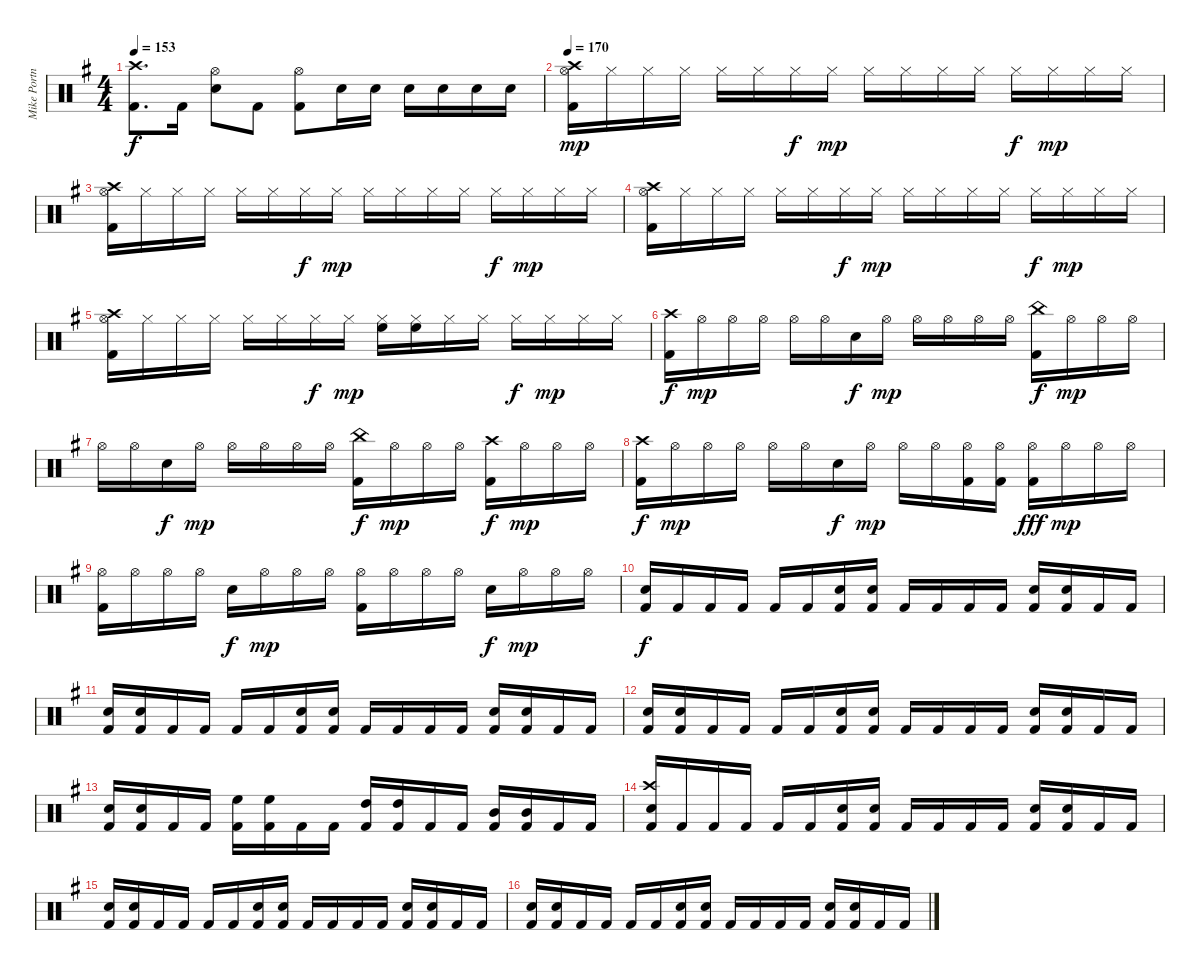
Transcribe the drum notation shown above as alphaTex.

\track ("Mike Portnoy - Drums" "Mike Portn") {instrument percussion}
\staff {score}
\articulation defaults
\ts (4 4)
\tempo 153
\clef neutral
\ks g
("Kick (hit) 2" "Crash high (hit)").8{d dy f} "Kick (hit) 2".16 ("Electric Snare (hit)" "Hi-Hat (open)").8 "Kick (hit) 2".8 ("Kick (hit) 2" "Hi-Hat (open)").8 "Electric Snare (hit)".16 "Electric Snare (hit)".16 "Electric Snare (hit)".16 "Electric Snare (hit)".16 "Electric Snare (hit)".16 "Electric Snare (hit)".16 |
\tempo 170
("Crash high (hit)" "Kick (hit) 2" "Hi-Hat (open)").16{dy mp} "Hi-Hat (closed)".16 "Hi-Hat (closed)".16 "Hi-Hat (closed)".16 "Hi-Hat (closed)".16 "Hi-Hat (closed)".16 "Hi-Hat (closed)".16{dy f} "Hi-Hat (closed)".16{dy mp} "Hi-Hat (closed)".16 "Hi-Hat (closed)".16 "Hi-Hat (closed)".16 "Hi-Hat (closed)".16 "Hi-Hat (closed)".16{dy f} "Hi-Hat (closed)".16{dy mp} "Hi-Hat (closed)".16 "Hi-Hat (closed)".16 |
("Crash high (hit)" "Kick (hit) 2" "Hi-Hat (open)").16 "Hi-Hat (closed)".16 "Hi-Hat (closed)".16 "Hi-Hat (closed)".16 "Hi-Hat (closed)".16 "Hi-Hat (closed)".16 "Hi-Hat (closed)".16{dy f} "Hi-Hat (closed)".16{dy mp} "Hi-Hat (closed)".16 "Hi-Hat (closed)".16 "Hi-Hat (closed)".16 "Hi-Hat (closed)".16 "Hi-Hat (closed)".16{dy f} "Hi-Hat (closed)".16{dy mp} "Hi-Hat (closed)".16 "Hi-Hat (closed)".16 |
("Crash high (hit)" "Kick (hit) 2" "Hi-Hat (open)").16 "Hi-Hat (closed)".16 "Hi-Hat (closed)".16 "Hi-Hat (closed)".16 "Hi-Hat (closed)".16 "Hi-Hat (closed)".16 "Hi-Hat (closed)".16{dy f} "Hi-Hat (closed)".16{dy mp} "Hi-Hat (closed)".16 "Hi-Hat (closed)".16 "Hi-Hat (closed)".16 "Hi-Hat (closed)".16 "Hi-Hat (closed)".16{dy f} "Hi-Hat (closed)".16{dy mp} "Hi-Hat (closed)".16 "Hi-Hat (closed)".16 |
("Crash high (hit)" "Kick (hit) 2" "Hi-Hat (open)").16 "Hi-Hat (closed)".16 "Hi-Hat (closed)".16 "Hi-Hat (closed)".16 "Hi-Hat (closed)".16 "Hi-Hat (closed)".16 "Hi-Hat (closed)".16{dy f} "Hi-Hat (closed)".16{dy mp} ("Hi-Hat (closed)" "High Floor Tom (hit)").16 ("Hi-Hat (closed)" "High Floor Tom (hit)").16 "Hi-Hat (closed)".16 "Hi-Hat (closed)".16 "Hi-Hat (closed)".16{dy f} "Hi-Hat (closed)".16{dy mp} "Hi-Hat (closed)".16 "Hi-Hat (closed)".16 |
("Crash high (hit)" "Kick (hit) 2").16{dy f} "Hi-Hat (open)".16{dy mp} "Hi-Hat (open)".16 "Hi-Hat (open)".16 "Hi-Hat (open)".16 "Hi-Hat (open)".16 "Electric Snare (hit)".16{dy f} "Hi-Hat (open)".16{dy mp} "Hi-Hat (open)".16 "Hi-Hat (open)".16 "Hi-Hat (open)".16 "Hi-Hat (open)".16 ("China (hit)" "Kick (hit) 2").16{dy f} "Hi-Hat (open)".16{dy mp} "Hi-Hat (open)".16 "Hi-Hat (open)".16 |
"Hi-Hat (open)".16 "Hi-Hat (open)".16 "Electric Snare (hit)".16{dy f} "Hi-Hat (open)".16{dy mp} "Hi-Hat (open)".16 "Hi-Hat (open)".16 "Hi-Hat (open)".16 "Hi-Hat (open)".16 ("China (hit)" "Kick (hit) 2").16{dy f} "Hi-Hat (open)".16{dy mp} "Hi-Hat (open)".16 "Hi-Hat (open)".16 ("Crash high (hit)" "Kick (hit) 2").16{dy f} "Hi-Hat (open)".16{dy mp} "Hi-Hat (open)".16 "Hi-Hat (open)".16 |
("Kick (hit) 2" "Crash high (hit)").16{dy f} "Hi-Hat (open)".16{dy mp} "Hi-Hat (open)".16 "Hi-Hat (open)".16 "Hi-Hat (open)".16 "Hi-Hat (open)".16 "Electric Snare (hit)".16{dy f} "Hi-Hat (open)".16{dy mp} "Hi-Hat (open)".16 "Hi-Hat (open)".16 ("Kick (hit) 2" "Hi-Hat (open)").16 ("Kick (hit) 2" "Hi-Hat (open)").16 ("Hi-Hat (open)" "Kick (hit) 2").16{dy fff} "Hi-Hat (open)".16{dy mp} "Hi-Hat (open)".16 "Hi-Hat (open)".16 |
("Kick (hit) 2" "Hi-Hat (open)").16 "Hi-Hat (open)".16 "Hi-Hat (open)".16 "Hi-Hat (open)".16 "Electric Snare (hit)".16{dy f} "Hi-Hat (open)".16{dy mp} "Hi-Hat (open)".16 "Hi-Hat (open)".16 ("Kick (hit) 2" "Hi-Hat (open)").16 "Hi-Hat (open)".16 "Hi-Hat (open)".16 "Hi-Hat (open)".16 "Electric Snare (hit)".16{dy f} "Hi-Hat (open)".16{dy mp} "Hi-Hat (open)".16 "Hi-Hat (open)".16 |
("Electric Snare (hit)" "Kick (hit) 2").16{dy f} "Kick (hit) 2".16 "Kick (hit) 2".16 "Kick (hit) 2".16 "Kick (hit) 2".16 "Kick (hit) 2".16 ("Kick (hit) 2" "Electric Snare (hit)").16 ("Kick (hit) 2" "Electric Snare (hit)").16 "Kick (hit) 2".16 "Kick (hit) 2".16 "Kick (hit) 2".16 "Kick (hit) 2".16 ("Kick (hit) 2" "Electric Snare (hit)").16 ("Kick (hit) 2" "Electric Snare (hit)").16 "Kick (hit) 2".16 "Kick (hit) 2".16 |
("Kick (hit) 2" "Electric Snare (hit)").16 ("Kick (hit) 2" "Electric Snare (hit)").16 "Kick (hit) 2".16 "Kick (hit) 2".16 "Kick (hit) 2".16 "Kick (hit) 2".16 ("Kick (hit) 2" "Electric Snare (hit)").16 ("Kick (hit) 2" "Electric Snare (hit)").16 "Kick (hit) 2".16 "Kick (hit) 2".16 "Kick (hit) 2".16 "Kick (hit) 2".16 ("Kick (hit) 2" "Electric Snare (hit)").16 ("Kick (hit) 2" "Electric Snare (hit)").16 "Kick (hit) 2".16 "Kick (hit) 2".16 |
("Kick (hit) 2" "Electric Snare (hit)").16 ("Kick (hit) 2" "Electric Snare (hit)").16 "Kick (hit) 2".16 "Kick (hit) 2".16 "Kick (hit) 2".16 "Kick (hit) 2".16 ("Kick (hit) 2" "Electric Snare (hit)").16 ("Kick (hit) 2" "Electric Snare (hit)").16 "Kick (hit) 2".16 "Kick (hit) 2".16 "Kick (hit) 2".16 "Kick (hit) 2".16 ("Kick (hit) 2" "Electric Snare (hit)").16 ("Kick (hit) 2" "Electric Snare (hit)").16 "Kick (hit) 2".16 "Kick (hit) 2".16 |
("Kick (hit) 2" "Electric Snare (hit)").16 ("Kick (hit) 2" "Electric Snare (hit)").16 "Kick (hit) 2".16 "Kick (hit) 2".16 ("Kick (hit) 2" "High Floor Tom (hit)").16 ("Kick (hit) 2" "High Floor Tom (hit)").16 "Kick (hit) 2".16 "Kick (hit) 2".16 ("Kick (hit) 2" "High Tom (hit)").16 ("Kick (hit) 2" "High Tom (hit)").16 "Kick (hit) 2".16 "Kick (hit) 2".16 ("Kick (hit) 2" "Mid Tom (hit)").16 ("Kick (hit) 2" "Mid Tom (hit)").16 "Kick (hit) 2".16 "Kick (hit) 2".16 |
("Kick (hit) 2" "Crash high (hit)" "Electric Snare (hit)").16 "Kick (hit) 2".16 "Kick (hit) 2".16 "Kick (hit) 2".16 "Kick (hit) 2".16 "Kick (hit) 2".16 ("Kick (hit) 2" "Electric Snare (hit)").16 ("Kick (hit) 2" "Electric Snare (hit)").16 "Kick (hit) 2".16 "Kick (hit) 2".16 "Kick (hit) 2".16 "Kick (hit) 2".16 ("Kick (hit) 2" "Electric Snare (hit)").16 ("Kick (hit) 2" "Electric Snare (hit)").16 "Kick (hit) 2".16 "Kick (hit) 2".16 |
("Kick (hit) 2" "Electric Snare (hit)").16 ("Kick (hit) 2" "Electric Snare (hit)").16 "Kick (hit) 2".16 "Kick (hit) 2".16 "Kick (hit) 2".16 "Kick (hit) 2".16 ("Kick (hit) 2" "Electric Snare (hit)").16 ("Kick (hit) 2" "Electric Snare (hit)").16 "Kick (hit) 2".16 "Kick (hit) 2".16 "Kick (hit) 2".16 "Kick (hit) 2".16 ("Kick (hit) 2" "Electric Snare (hit)").16 ("Kick (hit) 2" "Electric Snare (hit)").16 "Kick (hit) 2".16 "Kick (hit) 2".16 |
("Kick (hit) 2" "Electric Snare (hit)").16 ("Kick (hit) 2" "Electric Snare (hit)").16 "Kick (hit) 2".16 "Kick (hit) 2".16 "Kick (hit) 2".16 "Kick (hit) 2".16 ("Kick (hit) 2" "Electric Snare (hit)").16 ("Kick (hit) 2" "Electric Snare (hit)").16 "Kick (hit) 2".16 "Kick (hit) 2".16 "Kick (hit) 2".16 "Kick (hit) 2".16 ("Kick (hit) 2" "Electric Snare (hit)").16 ("Kick (hit) 2" "Electric Snare (hit)").16 "Kick (hit) 2".16 "Kick (hit) 2".16
